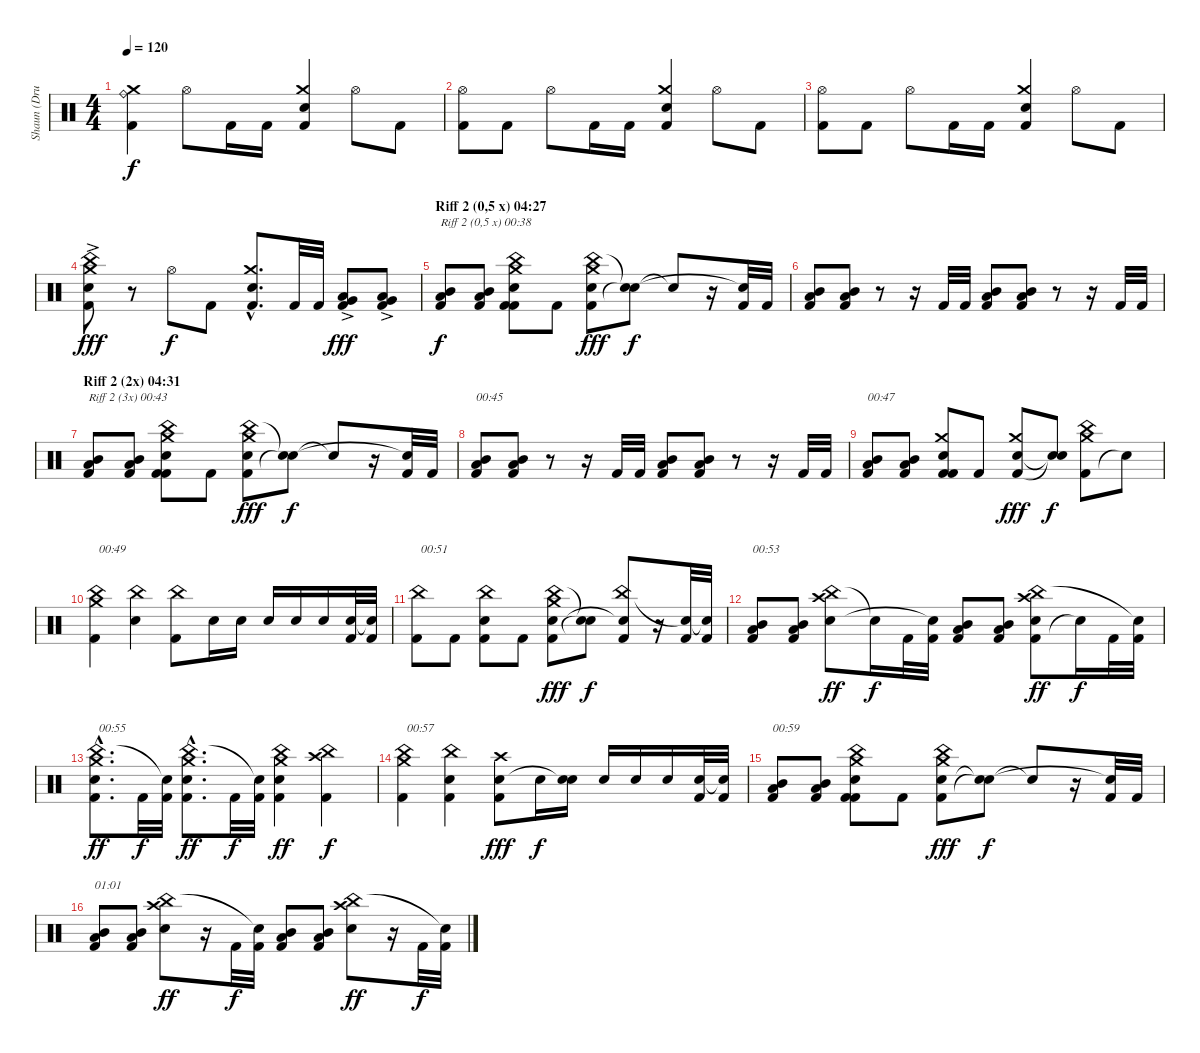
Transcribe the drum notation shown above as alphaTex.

\track ("Shaun (Drums Of DOOM)" "Shaun (Dru") {instrument percussion}
\staff {score}
\articulation defaults
\ts (4 4)
\tempo 120
\clef neutral
\ks c
("Kick (hit) 2" "Ride (bell)" "Crash medium (hit)").4{dy f} "Hi-Hat (open)".8 "Kick (hit) 2".16 "Kick (hit) 2".16 ("Kick (hit) 2" "Electric Snare (hit)" "Crash medium (hit)").4 "Hi-Hat (open)".8 "Kick (hit) 2".8 |
("Kick (hit) 2" "Hi-Hat (open)").8 "Kick (hit) 2".8 "Hi-Hat (open)".8 "Kick (hit) 2".16 "Kick (hit) 2".16 ("Kick (hit) 2" "Electric Snare (hit)" "Crash medium (hit)").4 "Hi-Hat (open)".8 "Kick (hit) 2".8 |
("Kick (hit) 2" "Hi-Hat (open)").8 "Kick (hit) 2".8 "Hi-Hat (open)".8 "Kick (hit) 2".16 "Kick (hit) 2".16 ("Kick (hit) 2" "Electric Snare (hit)" "Crash medium (hit)").4 "Hi-Hat (open)".8 "Kick (hit) 2".8 |
("Kick (hit) 2" "Electric Snare (hit)" "China (hit)"{ac} "Crash medium (hit)"{ac}).8{dy fff} r.8 "Hi-Hat (open)".8{dy f} "Kick (hit) 2".8 ("Kick (hit) 2"{hac} "Electric Snare (hit)"{hac} "Crash medium (hit)"{hac}).8{d} "Kick (hit) 2".32 "Kick (hit) 2".32 ("Kick (hit) 2" "Low Floor Tom (hit)"{ac} "Very Low Tom (hit)"{ac}).8{dy fff} ("Kick (hit) 2" "Low Tom (hit)"{ac} "Very Low Tom (hit)"{ac}).8 |
\section ("" "Riff 2 (0,5 x) 04:27")
("Kick (hit) 2" "Low Tom (hit)" "Mid Tom (hit)").8{txt "Riff 2 (0,5 x) 00:38" dy f} ("Kick (hit) 2" "Low Tom (hit)" "Mid Tom (hit)").8 ("Kick (hit) 2" "Kick (hit) 2" "China (hit)" "Electric Snare (hit)" "Crash medium (hit)").8 "Kick (hit) 2".8 ("Kick (hit) 2" "China (hit)" "Electric Snare (hit)" "Crash medium (hit)").8{dy fff} ("Snare (hit)"{t} "Snare (hit)"{t}).8{dy f} "Snare (hit)"{t}.8 r.16 ("Kick (hit) 2" "Snare (hit)"{t}).32 "Kick (hit) 2".32 |
("Kick (hit) 2" "Low Tom (hit)" "Mid Tom (hit)").8 ("Kick (hit) 2" "Low Tom (hit)" "Mid Tom (hit)").8 r.8 r.16 "Kick (hit) 2".32 "Kick (hit) 2".32 ("Kick (hit) 2" "Low Tom (hit)" "Mid Tom (hit)").8 ("Kick (hit) 2" "Low Tom (hit)" "Mid Tom (hit)").8 r.8 r.16 "Kick (hit) 2".32 "Kick (hit) 2".32 |
\section ("" "Riff 2 (2x) 04:31")
("Kick (hit) 2" "Low Tom (hit)" "Mid Tom (hit)").8{txt "Riff 2 (3x) 00:43"} ("Kick (hit) 2" "Low Tom (hit)" "Mid Tom (hit)").8 ("Kick (hit) 2" "Kick (hit) 2" "China (hit)" "Electric Snare (hit)" "Crash medium (hit)").8 "Kick (hit) 2".8 ("Kick (hit) 2" "China (hit)" "Electric Snare (hit)" "Crash medium (hit)").8{dy fff} ("Snare (hit)"{t} "Snare (hit)"{t}).8{dy f} "Snare (hit)"{t}.8 r.16 ("Kick (hit) 2" "Snare (hit)"{t}).32 "Kick (hit) 2".32 |
("Kick (hit) 2" "Low Tom (hit)" "Mid Tom (hit)").8{txt "00:45"} ("Kick (hit) 2" "Low Tom (hit)" "Mid Tom (hit)").8 r.8 r.16 "Kick (hit) 2".32 "Kick (hit) 2".32 ("Kick (hit) 2" "Low Tom (hit)" "Mid Tom (hit)").8 ("Kick (hit) 2" "Low Tom (hit)" "Mid Tom (hit)").8 r.8 r.16 "Kick (hit) 2".32 "Kick (hit) 2".32 |
("Kick (hit) 2" "Low Tom (hit)" "Mid Tom (hit)").8{txt "00:47"} ("Kick (hit) 2" "Low Tom (hit)" "Mid Tom (hit)").8 ("Kick (hit) 2" "Kick (hit) 2" "Electric Snare (hit)" "Crash medium (hit)").8 "Kick (hit) 2".8 ("Kick (hit) 2" "Electric Snare (hit)" "Crash medium (hit)").8{dy fff} ("Snare (hit)"{t} "Snare (hit)"{t}).8{dy f} ("Kick (hit) 2" "China (hit)" "Crash medium (hit)").8 "Snare (hit)"{t}.8 |
("Kick (hit) 2" "China (hit)" "Crash medium (hit)").4{txt "00:49"} ("China (hit)" "Electric Snare (hit)").4 ("Kick (hit) 2" "China (hit)").8 "Electric Snare (hit)".16 "Electric Snare (hit)".16 "Electric Snare (hit)".16 "Electric Snare (hit)".16 "Electric Snare (hit)".16 ("Kick (hit) 2" "Electric Snare (hit)").32 ("Kick (hit) 2" "Snare (hit)"{t}).32 |
("Kick (hit) 2" "China (hit)").8{txt "00:51"} "Kick (hit) 2".8 ("Kick (hit) 2" "China (hit)" "Electric Snare (hit)").8 "Kick (hit) 2".8 ("Kick (hit) 2" "China (hit)" "Electric Snare (hit)" "Crash medium (hit)").8{dy fff} ("Snare (hit)"{t} "Snare (hit)"{t}).8{dy f} ("Kick (hit) 2" "China (hit)" "Snare (hit)"{t}).8 r.16 ("Kick (hit) 2" "Snare (hit)"{t}).32 ("Kick (hit) 2" "Snare (hit)"{t}).32 |
("Kick (hit) 2" "Low Tom (hit)" "Mid Tom (hit)").8{txt "00:53"} ("Kick (hit) 2" "Low Tom (hit)" "Mid Tom (hit)").8 ("China (hit)" "Electric Snare (hit)" "Crash high (hit)").8{dy ff} "Snare (hit)"{t}.16{dy f} "Kick (hit) 2".32 ("Kick (hit) 2" "Snare (hit)"{t}).32 ("Kick (hit) 2" "Low Tom (hit)" "Mid Tom (hit)").8 ("Kick (hit) 2" "Low Tom (hit)" "Mid Tom (hit)").8 ("Kick (hit) 2" "China (hit)" "Electric Snare (hit)" "Crash high (hit)").8{dy ff} "Snare (hit)"{t}.16{dy f} "Kick (hit) 2".32 ("Kick (hit) 2" "Snare (hit)"{t}).32 |
("Kick (hit) 2"{hac} "China (hit)"{hac} "Electric Snare (hit)"{hac} "Crash medium (hit)"{hac}).8{d txt "00:55" dy ff} "Kick (hit) 2".32{dy f} ("Kick (hit) 2" "Snare (hit)"{t}).32 ("Kick (hit) 2"{hac} "China (hit)"{hac} "Electric Snare (hit)"{hac} "Crash medium (hit)"{hac}).8{d dy ff} "Kick (hit) 2".32{dy f} ("Kick (hit) 2" "Snare (hit)"{t}).32 ("Kick (hit) 2" "China (hit)" "Electric Snare (hit)" "Crash medium (hit)").4{dy ff} ("Kick (hit) 2" "China (hit)" "Crash high (hit)").4{dy f} |
("Kick (hit) 2" "China (hit)" "Crash medium (hit)").4{txt "00:57"} ("Kick (hit) 2" "Electric Snare (hit)" "China (hit)").4 ("Kick (hit) 2" "Electric Snare (hit)" "Crash high (hit)").8{dy fff} "Electric Snare (hit)".16{dy f} ("Electric Snare (hit)" "Snare (hit)"{t}).16 "Electric Snare (hit)".16 "Electric Snare (hit)".16 "Electric Snare (hit)".16 ("Kick (hit) 2" "Electric Snare (hit)").32 ("Kick (hit) 2" "Snare (hit)"{t}).32 |
("Kick (hit) 2" "Low Tom (hit)" "Mid Tom (hit)").8{txt "00:59"} ("Kick (hit) 2" "Low Tom (hit)" "Mid Tom (hit)").8 ("Kick (hit) 2" "Kick (hit) 2" "Electric Snare (hit)" "China (hit)" "Crash medium (hit)").8 "Kick (hit) 2".8 ("Kick (hit) 2" "Electric Snare (hit)" "China (hit)" "Crash medium (hit)").8{dy fff} ("Snare (hit)"{t} "Snare (hit)"{t}).8{dy f} "Snare (hit)"{t}.8 r.16 ("Kick (hit) 2" "Snare (hit)"{t}).32 "Kick (hit) 2".32 |
("Kick (hit) 2" "Low Tom (hit)" "Mid Tom (hit)").8{txt "01:01"} ("Kick (hit) 2" "Low Tom (hit)" "Mid Tom (hit)").8 ("Electric Snare (hit)" "China (hit)" "Crash high (hit)").8{dy ff} r.16 "Kick (hit) 2".32{dy f} ("Kick (hit) 2" "Snare (hit)"{t}).32 ("Kick (hit) 2" "Low Tom (hit)" "Mid Tom (hit)").8 ("Kick (hit) 2" "Low Tom (hit)" "Mid Tom (hit)").8 ("Electric Snare (hit)" "China (hit)" "Crash high (hit)").8{dy ff} r.16 "Kick (hit) 2".32{dy f} ("Kick (hit) 2" "Snare (hit)"{t}).32
